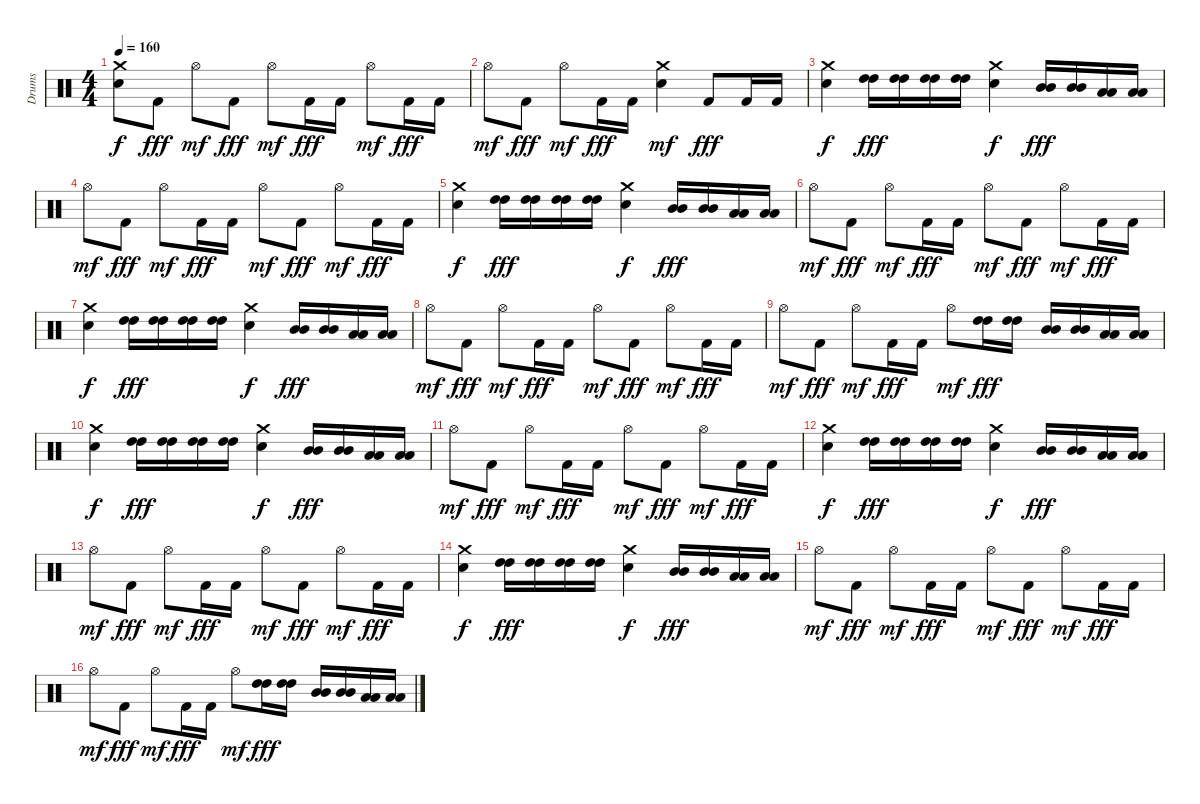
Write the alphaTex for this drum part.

\track ("Drums" "Drums") {instrument percussion}
\staff {score}
\articulation defaults
\ts (4 4)
\tempo 160
\clef neutral
\ks c
("Crash medium (hit)" "Electric Snare (hit)").8{dy f} "Kick (hit) 2".8{dy fff} "Hi-Hat (open)".8{dy mf} "Kick (hit) 2".8{dy fff} "Hi-Hat (open)".8{dy mf} "Kick (hit) 2".16{dy fff} "Kick (hit) 2".16 "Hi-Hat (open)".8{dy mf} "Kick (hit) 2".16{dy fff} "Kick (hit) 2".16 |
"Hi-Hat (open)".8{dy mf} "Kick (hit) 2".8{dy fff} "Hi-Hat (open)".8{dy mf} "Kick (hit) 2".16{dy fff} "Kick (hit) 2".16 ("Electric Snare (hit)" "Crash medium (hit)").4{dy mf} "Kick (hit) 2".8{dy fff} "Kick (hit) 2".16 "Kick (hit) 2".16 |
("Crash medium (hit)" "Electric Snare (hit)").4{dy f} ("High Tom (hit)" "High Tom (hit)").16{dy fff} ("High Tom (hit)" "High Tom (hit)").16 ("High Tom (hit)" "High Tom (hit)").16 ("High Tom (hit)" "High Tom (hit)").16 ("Crash medium (hit)" "Electric Snare (hit)").4{dy f} ("Mid Tom (hit)" "Mid Tom (hit)").16{dy fff} ("Mid Tom (hit)" "Mid Tom (hit)").16 ("Low Tom (hit)" "Low Tom (hit)").16 ("Low Tom (hit)" "Low Tom (hit)").16 |
"Hi-Hat (open)".8{dy mf} "Kick (hit) 2".8{dy fff} "Hi-Hat (open)".8{dy mf} "Kick (hit) 2".16{dy fff} "Kick (hit) 2".16 "Hi-Hat (open)".8{dy mf} "Kick (hit) 2".8{dy fff} "Hi-Hat (open)".8{dy mf} "Kick (hit) 2".16{dy fff} "Kick (hit) 2".16 |
("Crash medium (hit)" "Electric Snare (hit)").4{dy f} ("High Tom (hit)" "High Tom (hit)").16{dy fff} ("High Tom (hit)" "High Tom (hit)").16 ("High Tom (hit)" "High Tom (hit)").16 ("High Tom (hit)" "High Tom (hit)").16 ("Crash medium (hit)" "Electric Snare (hit)").4{dy f} ("Mid Tom (hit)" "Mid Tom (hit)").16{dy fff} ("Mid Tom (hit)" "Mid Tom (hit)").16 ("Low Tom (hit)" "Low Tom (hit)").16 ("Low Tom (hit)" "Low Tom (hit)").16 |
"Hi-Hat (open)".8{dy mf} "Kick (hit) 2".8{dy fff} "Hi-Hat (open)".8{dy mf} "Kick (hit) 2".16{dy fff} "Kick (hit) 2".16 "Hi-Hat (open)".8{dy mf} "Kick (hit) 2".8{dy fff} "Hi-Hat (open)".8{dy mf} "Kick (hit) 2".16{dy fff} "Kick (hit) 2".16 |
("Crash medium (hit)" "Electric Snare (hit)").4{dy f} ("High Tom (hit)" "High Tom (hit)").16{dy fff} ("High Tom (hit)" "High Tom (hit)").16 ("High Tom (hit)" "High Tom (hit)").16 ("High Tom (hit)" "High Tom (hit)").16 ("Crash medium (hit)" "Electric Snare (hit)").4{dy f} ("Mid Tom (hit)" "Mid Tom (hit)").16{dy fff} ("Mid Tom (hit)" "Mid Tom (hit)").16 ("Low Tom (hit)" "Low Tom (hit)").16 ("Low Tom (hit)" "Low Tom (hit)").16 |
"Hi-Hat (open)".8{dy mf} "Kick (hit) 2".8{dy fff} "Hi-Hat (open)".8{dy mf} "Kick (hit) 2".16{dy fff} "Kick (hit) 2".16 "Hi-Hat (open)".8{dy mf} "Kick (hit) 2".8{dy fff} "Hi-Hat (open)".8{dy mf} "Kick (hit) 2".16{dy fff} "Kick (hit) 2".16 |
"Hi-Hat (open)".8{dy mf} "Kick (hit) 2".8{dy fff} "Hi-Hat (open)".8{dy mf} "Kick (hit) 2".16{dy fff} "Kick (hit) 2".16 "Hi-Hat (open)".8{dy mf} ("High Tom (hit)" "High Tom (hit)").16{dy fff} ("High Tom (hit)" "High Tom (hit)").16 ("Mid Tom (hit)" "Mid Tom (hit)").16 ("Mid Tom (hit)" "Mid Tom (hit)").16 ("Low Tom (hit)" "Low Tom (hit)").16 ("Low Tom (hit)" "Low Tom (hit)").16 |
("Crash medium (hit)" "Electric Snare (hit)").4{dy f} ("High Tom (hit)" "High Tom (hit)").16{dy fff} ("High Tom (hit)" "High Tom (hit)").16 ("High Tom (hit)" "High Tom (hit)").16 ("High Tom (hit)" "High Tom (hit)").16 ("Crash medium (hit)" "Electric Snare (hit)").4{dy f} ("Mid Tom (hit)" "Mid Tom (hit)").16{dy fff} ("Mid Tom (hit)" "Mid Tom (hit)").16 ("Low Tom (hit)" "Low Tom (hit)").16 ("Low Tom (hit)" "Low Tom (hit)").16 |
"Hi-Hat (open)".8{dy mf} "Kick (hit) 2".8{dy fff} "Hi-Hat (open)".8{dy mf} "Kick (hit) 2".16{dy fff} "Kick (hit) 2".16 "Hi-Hat (open)".8{dy mf} "Kick (hit) 2".8{dy fff} "Hi-Hat (open)".8{dy mf} "Kick (hit) 2".16{dy fff} "Kick (hit) 2".16 |
("Crash medium (hit)" "Electric Snare (hit)").4{dy f} ("High Tom (hit)" "High Tom (hit)").16{dy fff} ("High Tom (hit)" "High Tom (hit)").16 ("High Tom (hit)" "High Tom (hit)").16 ("High Tom (hit)" "High Tom (hit)").16 ("Crash medium (hit)" "Electric Snare (hit)").4{dy f} ("Mid Tom (hit)" "Mid Tom (hit)").16{dy fff} ("Mid Tom (hit)" "Mid Tom (hit)").16 ("Low Tom (hit)" "Low Tom (hit)").16 ("Low Tom (hit)" "Low Tom (hit)").16 |
"Hi-Hat (open)".8{dy mf} "Kick (hit) 2".8{dy fff} "Hi-Hat (open)".8{dy mf} "Kick (hit) 2".16{dy fff} "Kick (hit) 2".16 "Hi-Hat (open)".8{dy mf} "Kick (hit) 2".8{dy fff} "Hi-Hat (open)".8{dy mf} "Kick (hit) 2".16{dy fff} "Kick (hit) 2".16 |
("Crash medium (hit)" "Electric Snare (hit)").4{dy f} ("High Tom (hit)" "High Tom (hit)").16{dy fff} ("High Tom (hit)" "High Tom (hit)").16 ("High Tom (hit)" "High Tom (hit)").16 ("High Tom (hit)" "High Tom (hit)").16 ("Crash medium (hit)" "Electric Snare (hit)").4{dy f} ("Mid Tom (hit)" "Mid Tom (hit)").16{dy fff} ("Mid Tom (hit)" "Mid Tom (hit)").16 ("Low Tom (hit)" "Low Tom (hit)").16 ("Low Tom (hit)" "Low Tom (hit)").16 |
"Hi-Hat (open)".8{dy mf} "Kick (hit) 2".8{dy fff} "Hi-Hat (open)".8{dy mf} "Kick (hit) 2".16{dy fff} "Kick (hit) 2".16 "Hi-Hat (open)".8{dy mf} "Kick (hit) 2".8{dy fff} "Hi-Hat (open)".8{dy mf} "Kick (hit) 2".16{dy fff} "Kick (hit) 2".16 |
"Hi-Hat (open)".8{dy mf} "Kick (hit) 2".8{dy fff} "Hi-Hat (open)".8{dy mf} "Kick (hit) 2".16{dy fff} "Kick (hit) 2".16 "Hi-Hat (open)".8{dy mf} ("High Tom (hit)" "High Tom (hit)").16{dy fff} ("High Tom (hit)" "High Tom (hit)").16 ("Mid Tom (hit)" "Mid Tom (hit)").16 ("Mid Tom (hit)" "Mid Tom (hit)").16 ("Low Tom (hit)" "Low Tom (hit)").16 ("Low Tom (hit)" "Low Tom (hit)").16
